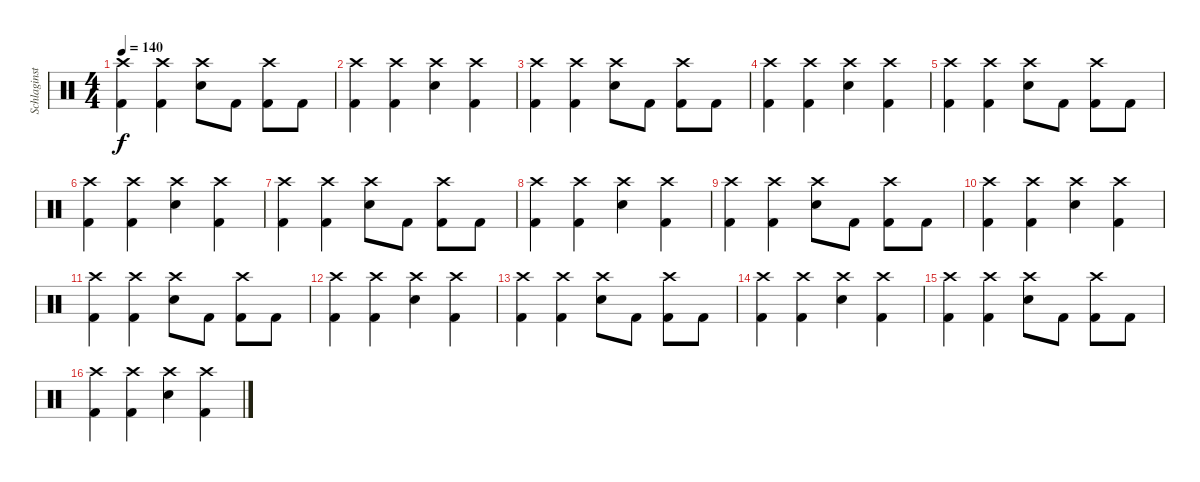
\track ("Schlaginstrumente - Auswahl" "Schlaginst") {instrument percussion}
\staff {score}
\articulation defaults
\ts (4 4)
\tempo 140
\clef neutral
\ks c
("Crash high (hit)" "Kick (hit) 2").4{dy f} ("Crash high (hit)" "Kick (hit) 2").4 ("Crash high (hit)" "Electric Snare (hit)").8 "Kick (hit) 2".8 ("Crash high (hit)" "Kick (hit) 2").8 "Kick (hit) 2".8 |
("Crash high (hit)" "Kick (hit) 2").4 ("Crash high (hit)" "Kick (hit) 2").4 ("Crash high (hit)" "Electric Snare (hit)").4 ("Crash high (hit)" "Kick (hit) 2").4 |
("Crash high (hit)" "Kick (hit) 2").4 ("Crash high (hit)" "Kick (hit) 2").4 ("Crash high (hit)" "Electric Snare (hit)").8 "Kick (hit) 2".8 ("Crash high (hit)" "Kick (hit) 2").8 "Kick (hit) 2".8 |
("Crash high (hit)" "Kick (hit) 2").4 ("Crash high (hit)" "Kick (hit) 2").4 ("Crash high (hit)" "Electric Snare (hit)").4 ("Crash high (hit)" "Kick (hit) 2").4 |
("Crash high (hit)" "Kick (hit) 2").4 ("Crash high (hit)" "Kick (hit) 2").4 ("Crash high (hit)" "Electric Snare (hit)").8 "Kick (hit) 2".8 ("Crash high (hit)" "Kick (hit) 2").8 "Kick (hit) 2".8 |
("Crash high (hit)" "Kick (hit) 2").4 ("Crash high (hit)" "Kick (hit) 2").4 ("Crash high (hit)" "Electric Snare (hit)").4 ("Crash high (hit)" "Kick (hit) 2").4 |
("Crash high (hit)" "Kick (hit) 2").4 ("Crash high (hit)" "Kick (hit) 2").4 ("Crash high (hit)" "Electric Snare (hit)").8 "Kick (hit) 2".8 ("Crash high (hit)" "Kick (hit) 2").8 "Kick (hit) 2".8 |
("Crash high (hit)" "Kick (hit) 2").4 ("Crash high (hit)" "Kick (hit) 2").4 ("Crash high (hit)" "Electric Snare (hit)").4 ("Crash high (hit)" "Kick (hit) 2").4 |
("Crash high (hit)" "Kick (hit) 2").4 ("Crash high (hit)" "Kick (hit) 2").4 ("Crash high (hit)" "Electric Snare (hit)").8 "Kick (hit) 2".8 ("Crash high (hit)" "Kick (hit) 2").8 "Kick (hit) 2".8 |
("Crash high (hit)" "Kick (hit) 2").4 ("Crash high (hit)" "Kick (hit) 2").4 ("Crash high (hit)" "Electric Snare (hit)").4 ("Crash high (hit)" "Kick (hit) 2").4 |
("Crash high (hit)" "Kick (hit) 2").4 ("Crash high (hit)" "Kick (hit) 2").4 ("Crash high (hit)" "Electric Snare (hit)").8 "Kick (hit) 2".8 ("Crash high (hit)" "Kick (hit) 2").8 "Kick (hit) 2".8 |
("Crash high (hit)" "Kick (hit) 2").4 ("Crash high (hit)" "Kick (hit) 2").4 ("Crash high (hit)" "Electric Snare (hit)").4 ("Crash high (hit)" "Kick (hit) 2").4 |
("Crash high (hit)" "Kick (hit) 2").4 ("Crash high (hit)" "Kick (hit) 2").4 ("Crash high (hit)" "Electric Snare (hit)").8 "Kick (hit) 2".8 ("Crash high (hit)" "Kick (hit) 2").8 "Kick (hit) 2".8 |
("Crash high (hit)" "Kick (hit) 2").4 ("Crash high (hit)" "Kick (hit) 2").4 ("Crash high (hit)" "Electric Snare (hit)").4 ("Crash high (hit)" "Kick (hit) 2").4 |
("Crash high (hit)" "Kick (hit) 2").4 ("Crash high (hit)" "Kick (hit) 2").4 ("Crash high (hit)" "Electric Snare (hit)").8 "Kick (hit) 2".8 ("Crash high (hit)" "Kick (hit) 2").8 "Kick (hit) 2".8 |
("Crash high (hit)" "Kick (hit) 2").4 ("Crash high (hit)" "Kick (hit) 2").4 ("Crash high (hit)" "Electric Snare (hit)").4 ("Crash high (hit)" "Kick (hit) 2").4
